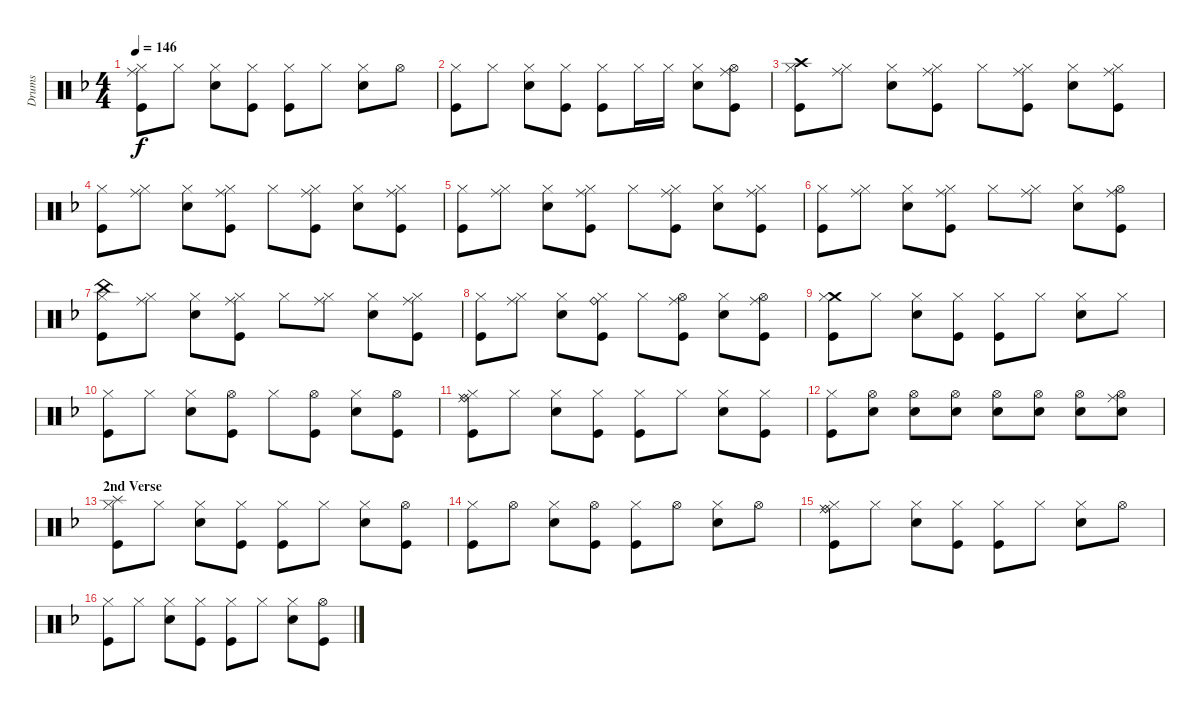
\track ("Drums" "Drums") {instrument percussion}
\staff {score}
\articulation defaults
\ts (4 4)
\tempo 146
\clef neutral
\ks f
("Ride (middle)" "Kick (hit)" "Hi-Hat (closed)").8{dy f} "Hi-Hat (closed)".8 ("Snare (hit) 2" "Hi-Hat (closed)").8 ("Kick (hit)" "Hi-Hat (closed)").8 ("Kick (hit)" "Hi-Hat (closed)").8 "Hi-Hat (closed)".8 ("Snare (hit) 2" "Hi-Hat (closed)").8 "Hi-Hat (open)".8 |
("Kick (hit)" "Hi-Hat (closed)").8 "Hi-Hat (closed)".8 ("Snare (hit) 2" "Hi-Hat (closed)").8 ("Kick (hit)" "Hi-Hat (closed)").8 ("Kick (hit)" "Hi-Hat (closed)").8 "Hi-Hat (closed)".16 "Hi-Hat (closed)".16 ("Snare (hit) 2" "Hi-Hat (closed)").8 ("Kick (hit)" "Hi-Hat (open)" "Ride (middle)").8 |
("Kick (hit)" "Hi-Hat (closed)" "Crash high (hit)").8 ("Hi-Hat (closed)" "Ride (middle)").8 ("Snare (hit) 2" "Hi-Hat (closed)").8 ("Ride (middle)" "Kick (hit)" "Hi-Hat (closed)").8 "Hi-Hat (closed)".8 ("Kick (hit)" "Hi-Hat (closed)" "Ride (middle)").8 ("Snare (hit) 2" "Hi-Hat (closed)").8 ("Kick (hit)" "Hi-Hat (closed)" "Ride (middle)").8 |
("Kick (hit)" "Hi-Hat (closed)").8 ("Hi-Hat (closed)" "Ride (middle)").8 ("Snare (hit) 2" "Hi-Hat (closed)").8 ("Kick (hit)" "Hi-Hat (closed)" "Ride (middle)").8 "Hi-Hat (closed)".8 ("Kick (hit)" "Hi-Hat (closed)" "Ride (middle)").8 ("Snare (hit) 2" "Hi-Hat (closed)").8 ("Ride (middle)" "Kick (hit)" "Hi-Hat (closed)").8 |
("Kick (hit)" "Hi-Hat (closed)").8 ("Hi-Hat (closed)" "Ride (middle)").8 ("Snare (hit) 2" "Hi-Hat (closed)").8 ("Kick (hit)" "Hi-Hat (closed)" "Ride (middle)").8 "Hi-Hat (closed)".8 ("Kick (hit)" "Hi-Hat (closed)" "Ride (middle)").8 ("Snare (hit) 2" "Hi-Hat (closed)").8 ("Hi-Hat (closed)" "Ride (middle)" "Kick (hit)").8 |
("Kick (hit)" "Hi-Hat (closed)").8 ("Hi-Hat (closed)" "Ride (middle)").8 ("Snare (hit) 2" "Hi-Hat (closed)").8 ("Kick (hit)" "Hi-Hat (closed)" "Ride (middle)").8 "Hi-Hat (closed)".8 ("Hi-Hat (closed)" "Ride (middle)").8 ("Snare (hit) 2" "Hi-Hat (closed)").8 ("Kick (hit)" "Hi-Hat (open)" "Ride (middle)").8 |
("Kick (hit)" "Hi-Hat (closed)" "China (hit)").8 ("Hi-Hat (closed)" "Ride (middle)").8 ("Snare (hit) 2" "Hi-Hat (closed)").8 ("Ride (middle)" "Kick (hit)" "Hi-Hat (closed)").8 "Hi-Hat (closed)".8 ("Hi-Hat (closed)" "Ride (middle)").8 ("Snare (hit) 2" "Hi-Hat (closed)").8 ("Hi-Hat (closed)" "Ride (middle)" "Kick (hit)").8 |
("Kick (hit)" "Hi-Hat (closed)").8 ("Hi-Hat (closed)" "Ride (middle)").8 ("Snare (hit) 2" "Hi-Hat (closed)").8 ("Kick (hit)" "Hi-Hat (closed)" "Ride (bell)").8 "Hi-Hat (closed)".8 ("Kick (hit)" "Hi-Hat (open)" "Ride (middle)").8 ("Snare (hit) 2" "Hi-Hat (closed)").8 ("Kick (hit)" "Hi-Hat (open)" "Ride (middle)").8 |
("Crash medium (hit)" "Kick (hit)" "Hi-Hat (closed)").8 "Hi-Hat (closed)".8 ("Snare (hit) 2" "Hi-Hat (closed)").8 ("Kick (hit)" "Hi-Hat (closed)").8 ("Kick (hit)" "Hi-Hat (closed)").8 "Hi-Hat (closed)".8 ("Snare (hit) 2" "Hi-Hat (closed)").8 "Hi-Hat (closed)".8 |
("Kick (hit)" "Hi-Hat (closed)").8 "Hi-Hat (closed)".8 ("Snare (hit) 2" "Hi-Hat (closed)").8 ("Kick (hit)" "Hi-Hat (open)").8 "Hi-Hat (closed)".8 ("Kick (hit)" "Hi-Hat (open)").8 ("Snare (hit) 2" "Hi-Hat (closed)").8 ("Kick (hit)" "Hi-Hat (open)").8 |
("Ride (bell)" "Ride (middle)" "Hi-Hat (closed)" "Kick (hit)").8 "Hi-Hat (closed)".8 ("Snare (hit) 2" "Hi-Hat (closed)").8 ("Kick (hit)" "Hi-Hat (closed)").8 ("Kick (hit)" "Hi-Hat (closed)").8 "Hi-Hat (closed)".8 ("Snare (hit) 2" "Hi-Hat (closed)").8 ("Kick (hit)" "Hi-Hat (closed)").8 |
("Kick (hit)" "Hi-Hat (closed)").8 ("Snare (hit) 2" "Hi-Hat (open)").8 ("Snare (hit) 2" "Hi-Hat (open)").8 ("Snare (hit) 2" "Hi-Hat (open)").8 ("Snare (hit) 2" "Hi-Hat (open)").8 ("Snare (hit) 2" "Hi-Hat (open)").8 ("Snare (hit) 2" "Hi-Hat (open)").8 ("Snare (hit) 2" "Hi-Hat (open)" "Ride (middle)").8 |
\section ("" "2nd Verse")
("Kick (hit)" "Hi-Hat (closed)" "Splash (hit)").8 "Hi-Hat (closed)".8 ("Snare (hit) 2" "Hi-Hat (closed)").8 ("Kick (hit)" "Hi-Hat (closed)").8 ("Kick (hit)" "Hi-Hat (closed)").8 "Hi-Hat (closed)".8 ("Snare (hit) 2" "Hi-Hat (closed)").8 ("Kick (hit)" "Hi-Hat (open)").8 |
("Kick (hit)" "Hi-Hat (closed)").8 "Hi-Hat (open)".8 ("Snare (hit) 2" "Hi-Hat (closed)").8 ("Kick (hit)" "Hi-Hat (open)").8 ("Kick (hit)" "Hi-Hat (closed)").8 "Hi-Hat (open)".8 ("Snare (hit) 2" "Hi-Hat (closed)").8 "Hi-Hat (open)".8 |
("Kick (hit)" "Ride (bell)" "Hi-Hat (closed)" "Ride (middle)").8 "Hi-Hat (closed)".8 ("Snare (hit) 2" "Hi-Hat (closed)").8 ("Kick (hit)" "Hi-Hat (closed)").8 ("Kick (hit)" "Hi-Hat (closed)").8 "Hi-Hat (closed)".8 ("Snare (hit) 2" "Hi-Hat (closed)").8 "Hi-Hat (open)".8 |
("Kick (hit)" "Hi-Hat (closed)").8 "Hi-Hat (closed)".8 ("Snare (hit) 2" "Hi-Hat (closed)").8 ("Kick (hit)" "Hi-Hat (closed)").8 ("Kick (hit)" "Hi-Hat (closed)").8 "Hi-Hat (closed)".8 ("Snare (hit) 2" "Hi-Hat (closed)").8 ("Kick (hit)" "Hi-Hat (open)").8
